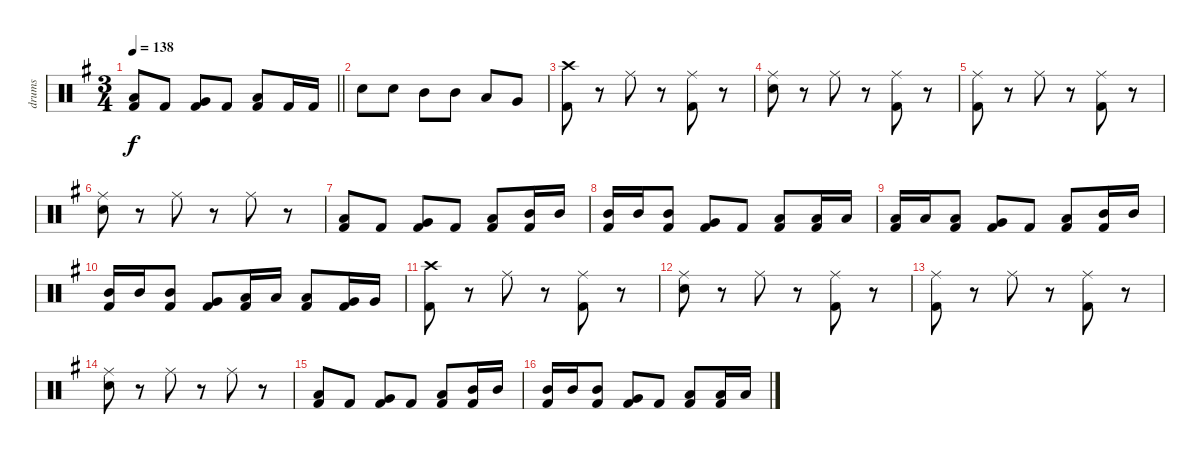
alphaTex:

\track ("drums" "drums") {instrument percussion}
\staff {score}
\articulation defaults
\ts (3 4)
\tempo 138
\clef neutral
\barLineRight lightlight
\ks eminor
("Low Tom (hit)" "Kick (hit) 2").8{dy f} "Kick (hit) 2".8 ("Very Low Tom (hit)" "Kick (hit) 2").8 "Kick (hit) 2".8 ("Low Tom (hit)" "Kick (hit) 2").8 "Kick (hit) 2".16 "Kick (hit) 2".16 |
"Snare (hit) 2".8 "Snare (hit) 2".8 "Mid Tom (hit)".8 "Mid Tom (hit)".8 "Low Tom (hit)".8 "Very Low Tom (hit)".8 |
("Crash high (hit)" "Kick (hit) 2").8 r.8 "Ride (middle)".8 r.8 ("Ride (middle)" "Kick (hit) 2").8 r.8 |
("Ride (middle)" "Snare (hit) 2").8 r.8 "Ride (middle)".8 r.8 ("Ride (middle)" "Kick (hit) 2").8 r.8 |
("Ride (middle)" "Kick (hit) 2").8 r.8 "Ride (middle)".8 r.8 ("Ride (middle)" "Kick (hit) 2").8 r.8 |
("Ride (middle)" "Snare (hit) 2").8 r.8 "Ride (middle)".8 r.8 "Ride (middle)".8 r.8 |
("Low Tom (hit)" "Kick (hit) 2").8 "Kick (hit) 2".8 ("Very Low Tom (hit)" "Kick (hit) 2").8 "Kick (hit) 2".8 ("Low Tom (hit)" "Kick (hit) 2").8 ("Mid Tom (hit)" "Kick (hit) 2").16 "Mid Tom (hit)".16 |
("Mid Tom (hit)" "Kick (hit) 2").16 "Mid Tom (hit)".16 ("Mid Tom (hit)" "Kick (hit) 2").8 ("Very Low Tom (hit)" "Kick (hit) 2").8 "Kick (hit) 2".8 ("Low Tom (hit)" "Kick (hit) 2").8 ("Low Tom (hit)" "Kick (hit) 2").16 "Low Tom (hit)".16 |
("Low Tom (hit)" "Kick (hit) 2").16 "Low Tom (hit)".16 ("Low Tom (hit)" "Kick (hit) 2").8 ("Very Low Tom (hit)" "Kick (hit) 2").8 "Kick (hit) 2".8 ("Low Tom (hit)" "Kick (hit) 2").8 ("Mid Tom (hit)" "Kick (hit) 2").16 "Mid Tom (hit)".16 |
("Mid Tom (hit)" "Kick (hit) 2").16 "Mid Tom (hit)".16 ("Mid Tom (hit)" "Kick (hit) 2").8 ("Very Low Tom (hit)" "Kick (hit) 2").8 ("Low Tom (hit)" "Kick (hit) 2").16 "Low Tom (hit)".16 ("Low Tom (hit)" "Kick (hit) 2").8 ("Very Low Tom (hit)" "Kick (hit) 2").16 "Very Low Tom (hit)".16 |
("Crash high (hit)" "Kick (hit) 2").8 r.8 "Ride (middle)".8 r.8 ("Ride (middle)" "Kick (hit) 2").8 r.8 |
("Ride (middle)" "Snare (hit) 2").8 r.8 "Ride (middle)".8 r.8 ("Ride (middle)" "Kick (hit) 2").8 r.8 |
("Ride (middle)" "Kick (hit) 2").8 r.8 "Ride (middle)".8 r.8 ("Ride (middle)" "Kick (hit) 2").8 r.8 |
("Ride (middle)" "Snare (hit) 2").8 r.8 "Ride (middle)".8 r.8 "Ride (middle)".8 r.8 |
("Low Tom (hit)" "Kick (hit) 2").8 "Kick (hit) 2".8 ("Very Low Tom (hit)" "Kick (hit) 2").8 "Kick (hit) 2".8 ("Low Tom (hit)" "Kick (hit) 2").8 ("Mid Tom (hit)" "Kick (hit) 2").16 "Mid Tom (hit)".16 |
("Mid Tom (hit)" "Kick (hit) 2").16 "Mid Tom (hit)".16 ("Mid Tom (hit)" "Kick (hit) 2").8 ("Very Low Tom (hit)" "Kick (hit) 2").8 "Kick (hit) 2".8 ("Low Tom (hit)" "Kick (hit) 2").8 ("Low Tom (hit)" "Kick (hit) 2").16 "Low Tom (hit)".16
